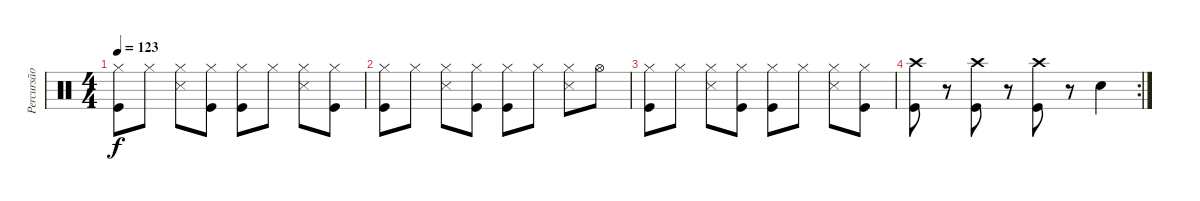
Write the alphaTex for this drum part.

\track ("Percursão" "Percursão") {instrument percussion}
\staff {score}
\articulation defaults
\ts (4 4)
\tempo 123
\clef neutral
\ks c
("Hi-Hat (closed)" "Kick (hit)").8{dy f} "Hi-Hat (closed)".8 ("Snare (side stick) 3" "Hi-Hat (closed)").8 ("Hi-Hat (closed)" "Kick (hit)").8 ("Kick (hit)" "Hi-Hat (closed)").8 "Hi-Hat (closed)".8 ("Snare (side stick) 3" "Hi-Hat (closed)").8 ("Kick (hit)" "Hi-Hat (closed)").8 |
("Kick (hit)" "Hi-Hat (closed)").8 "Hi-Hat (closed)".8 ("Hi-Hat (closed)" "Snare (side stick) 3").8 ("Kick (hit)" "Hi-Hat (closed)").8 ("Hi-Hat (closed)" "Kick (hit)").8 "Hi-Hat (closed)".8 ("Snare (side stick) 3" "Hi-Hat (closed)").8 "Hi-Hat (open)".8 |
("Kick (hit)" "Hi-Hat (closed)").8 "Hi-Hat (closed)".8 ("Snare (side stick) 3" "Hi-Hat (closed)").8 ("Hi-Hat (closed)" "Kick (hit)").8 ("Hi-Hat (closed)" "Kick (hit)").8 "Hi-Hat (closed)".8 ("Hi-Hat (closed)" "Snare (side stick) 3").8 ("Hi-Hat (closed)" "Kick (hit)").8 |
\rc 2
("Kick (hit)" "Crash high (hit)").8 r.8 ("Crash high (hit)" "Kick (hit)").8 r.8 ("Kick (hit)" "Crash high (hit)").8 r.8 "Hand Clap (hit)".4
